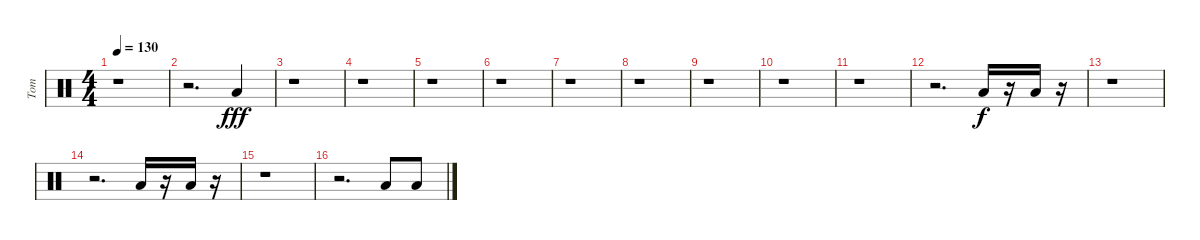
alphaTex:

\track ("Tom" "Tom") {instrument percussion}
\staff {score}
\articulation defaults
\ts (4 4)
\tempo 130
\clef neutral
\ks c
r.1{dy fff} |
r.2{d} "Low Tom (hit)".4 |
r.1 |
r.1 |
r.1 |
r.1 |
r.1 |
r.1 |
r.1 |
r.1 |
r.1 |
r.2{d} "Low Tom (hit)".16{dy f} r.16 "Low Tom (hit)".16 r.16 |
r.1 |
r.2{d} "Low Tom (hit)".16 r.16 "Low Tom (hit)".16 r.16 |
r.1 |
r.2{d} "Low Tom (hit)".8 "Low Tom (hit)".8
